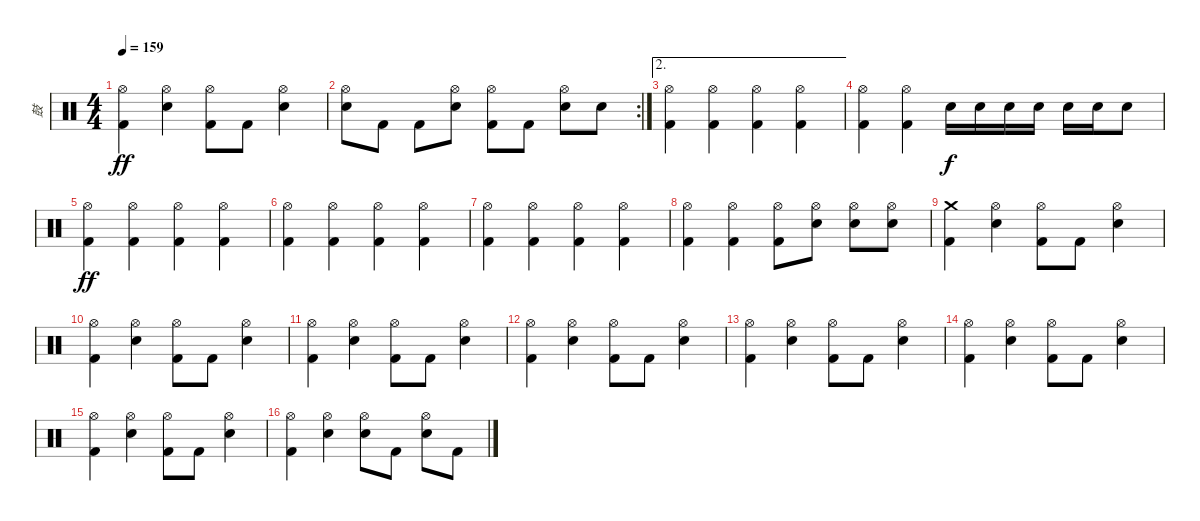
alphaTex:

\track ("鼓" "鼓") {instrument percussion}
\staff {score}
\articulation defaults
\ts (4 4)
\tempo 159
\clef neutral
\ks c
("Hi-Hat (open)" "Kick (hit) 2").4{dy ff} ("Hi-Hat (open)" "Electric Snare (hit)").4 ("Hi-Hat (open)" "Kick (hit) 2").8 "Kick (hit) 2".8 ("Hi-Hat (open)" "Electric Snare (hit)").4 |
\rc 2
("Hi-Hat (open)" "Electric Snare (hit)").8 "Kick (hit) 2".8 "Kick (hit) 2".8 ("Hi-Hat (open)" "Electric Snare (hit)").8 ("Hi-Hat (open)" "Kick (hit) 2").8 "Kick (hit) 2".8 ("Hi-Hat (open)" "Electric Snare (hit)").8 "Electric Snare (hit)".8 |
\ae 2
("Hi-Hat (open)" "Kick (hit) 2").4 ("Hi-Hat (open)" "Kick (hit) 2").4 ("Hi-Hat (open)" "Kick (hit) 2").4 ("Hi-Hat (open)" "Kick (hit) 2").4 |
("Hi-Hat (open)" "Kick (hit) 2").4 ("Hi-Hat (open)" "Kick (hit) 2").4 "Electric Snare (hit)".16{dy f} "Electric Snare (hit)".16 "Electric Snare (hit)".16 "Electric Snare (hit)".16 "Electric Snare (hit)".16 "Electric Snare (hit)".16 "Electric Snare (hit)".8 |
("Hi-Hat (open)" "Kick (hit) 2").4{dy ff} ("Hi-Hat (open)" "Kick (hit) 2").4 ("Hi-Hat (open)" "Kick (hit) 2").4 ("Hi-Hat (open)" "Kick (hit) 2").4 |
("Hi-Hat (open)" "Kick (hit) 2").4 ("Hi-Hat (open)" "Kick (hit) 2").4 ("Hi-Hat (open)" "Kick (hit) 2").4 ("Hi-Hat (open)" "Kick (hit) 2").4 |
("Hi-Hat (open)" "Kick (hit) 2").4 ("Hi-Hat (open)" "Kick (hit) 2").4 ("Hi-Hat (open)" "Kick (hit) 2").4 ("Hi-Hat (open)" "Kick (hit) 2").4 |
("Hi-Hat (open)" "Kick (hit) 2").4 ("Hi-Hat (open)" "Kick (hit) 2").4 ("Hi-Hat (open)" "Kick (hit) 2").8 ("Hi-Hat (open)" "Electric Snare (hit)").8 ("Hi-Hat (open)" "Electric Snare (hit)").8 ("Hi-Hat (open)" "Electric Snare (hit)").8 |
("Crash medium (hit)" "Kick (hit) 2").4 ("Hi-Hat (open)" "Electric Snare (hit)").4 ("Hi-Hat (open)" "Kick (hit) 2").8 "Kick (hit) 2".8 ("Hi-Hat (open)" "Electric Snare (hit)").4 |
("Hi-Hat (open)" "Kick (hit) 2").4 ("Hi-Hat (open)" "Electric Snare (hit)").4 ("Hi-Hat (open)" "Kick (hit) 2").8 "Kick (hit) 2".8 ("Hi-Hat (open)" "Electric Snare (hit)").4 |
("Hi-Hat (open)" "Kick (hit) 2").4 ("Hi-Hat (open)" "Electric Snare (hit)").4 ("Hi-Hat (open)" "Kick (hit) 2").8 "Kick (hit) 2".8 ("Hi-Hat (open)" "Electric Snare (hit)").4 |
("Hi-Hat (open)" "Kick (hit) 2").4 ("Hi-Hat (open)" "Electric Snare (hit)").4 ("Hi-Hat (open)" "Kick (hit) 2").8 "Kick (hit) 2".8 ("Hi-Hat (open)" "Electric Snare (hit)").4 |
("Hi-Hat (open)" "Kick (hit) 2").4 ("Hi-Hat (open)" "Electric Snare (hit)").4 ("Hi-Hat (open)" "Kick (hit) 2").8 "Kick (hit) 2".8 ("Hi-Hat (open)" "Electric Snare (hit)").4 |
("Hi-Hat (open)" "Kick (hit) 2").4 ("Hi-Hat (open)" "Electric Snare (hit)").4 ("Hi-Hat (open)" "Kick (hit) 2").8 "Kick (hit) 2".8 ("Hi-Hat (open)" "Electric Snare (hit)").4 |
("Hi-Hat (open)" "Kick (hit) 2").4 ("Hi-Hat (open)" "Electric Snare (hit)").4 ("Hi-Hat (open)" "Kick (hit) 2").8 "Kick (hit) 2".8 ("Hi-Hat (open)" "Electric Snare (hit)").4 |
("Hi-Hat (open)" "Kick (hit) 2").4 ("Hi-Hat (open)" "Electric Snare (hit)").4 ("Hi-Hat (open)" "Electric Snare (hit)").8 "Kick (hit) 2".8 ("Hi-Hat (open)" "Electric Snare (hit)").8 "Kick (hit) 2".8
